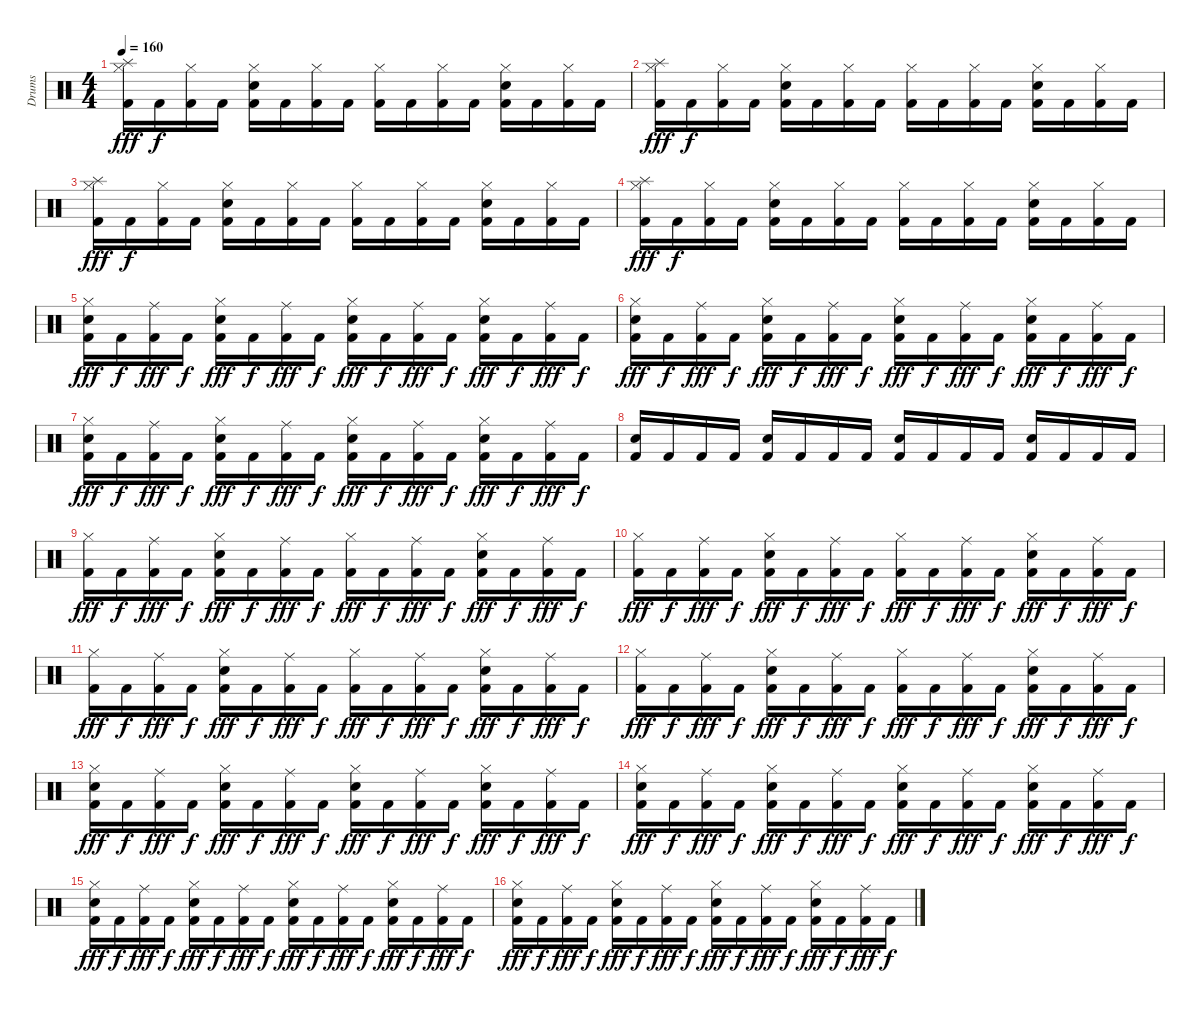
\track ("Drums" "Drums") {instrument percussion}
\staff {score}
\articulation defaults
\ts (4 4)
\tempo 160
\clef neutral
\ks c
("Splash (hit)" "Hi-Hat (closed)" "Kick (hit) 2").16{dy fff} "Kick (hit) 2".16{dy f} ("Hi-Hat (closed)" "Kick (hit) 2").16 "Kick (hit) 2".16 ("Hi-Hat (closed)" "Snare (hit) 2" "Kick (hit) 2").16 "Kick (hit) 2".16 ("Hi-Hat (closed)" "Kick (hit) 2").16 "Kick (hit) 2".16 ("Hi-Hat (closed)" "Kick (hit) 2").16 "Kick (hit) 2".16 ("Hi-Hat (closed)" "Kick (hit) 2").16 "Kick (hit) 2".16 ("Hi-Hat (closed)" "Snare (hit) 2" "Kick (hit) 2").16 "Kick (hit) 2".16 ("Hi-Hat (closed)" "Kick (hit) 2").16 "Kick (hit) 2".16 |
("Splash (hit)" "Hi-Hat (closed)" "Kick (hit) 2").16{dy fff} "Kick (hit) 2".16{dy f} ("Hi-Hat (closed)" "Kick (hit) 2").16 "Kick (hit) 2".16 ("Hi-Hat (closed)" "Snare (hit) 2" "Kick (hit) 2").16 "Kick (hit) 2".16 ("Hi-Hat (closed)" "Kick (hit) 2").16 "Kick (hit) 2".16 ("Hi-Hat (closed)" "Kick (hit) 2").16 "Kick (hit) 2".16 ("Hi-Hat (closed)" "Kick (hit) 2").16 "Kick (hit) 2".16 ("Hi-Hat (closed)" "Snare (hit) 2" "Kick (hit) 2").16 "Kick (hit) 2".16 ("Hi-Hat (closed)" "Kick (hit) 2").16 "Kick (hit) 2".16 |
("Splash (hit)" "Hi-Hat (closed)" "Kick (hit) 2").16{dy fff} "Kick (hit) 2".16{dy f} ("Hi-Hat (closed)" "Kick (hit) 2").16 "Kick (hit) 2".16 ("Hi-Hat (closed)" "Snare (hit) 2" "Kick (hit) 2").16 "Kick (hit) 2".16 ("Hi-Hat (closed)" "Kick (hit) 2").16 "Kick (hit) 2".16 ("Hi-Hat (closed)" "Kick (hit) 2").16 "Kick (hit) 2".16 ("Hi-Hat (closed)" "Kick (hit) 2").16 "Kick (hit) 2".16 ("Hi-Hat (closed)" "Snare (hit) 2" "Kick (hit) 2").16 "Kick (hit) 2".16 ("Hi-Hat (closed)" "Kick (hit) 2").16 "Kick (hit) 2".16 |
("Splash (hit)" "Hi-Hat (closed)" "Kick (hit) 2").16{dy fff} "Kick (hit) 2".16{dy f} ("Hi-Hat (closed)" "Kick (hit) 2").16 "Kick (hit) 2".16 ("Hi-Hat (closed)" "Snare (hit) 2" "Kick (hit) 2").16 "Kick (hit) 2".16 ("Hi-Hat (closed)" "Kick (hit) 2").16 "Kick (hit) 2".16 ("Hi-Hat (closed)" "Kick (hit) 2").16 "Kick (hit) 2".16 ("Hi-Hat (closed)" "Kick (hit) 2").16 "Kick (hit) 2".16 ("Hi-Hat (closed)" "Snare (hit) 2" "Kick (hit) 2").16 "Kick (hit) 2".16 ("Hi-Hat (closed)" "Kick (hit) 2").16 "Kick (hit) 2".16 |
("Hi-Hat (closed)" "Snare (hit) 2" "Kick (hit) 2").16{dy fff} "Kick (hit) 2".16{dy f} ("Ride (middle)" "Kick (hit) 2").16{dy fff} "Kick (hit) 2".16{dy f} ("Hi-Hat (closed)" "Snare (hit) 2" "Kick (hit) 2").16{dy fff} "Kick (hit) 2".16{dy f} ("Ride (middle)" "Kick (hit) 2").16{dy fff} "Kick (hit) 2".16{dy f} ("Hi-Hat (closed)" "Snare (hit) 2" "Kick (hit) 2").16{dy fff} "Kick (hit) 2".16{dy f} ("Ride (middle)" "Kick (hit) 2").16{dy fff} "Kick (hit) 2".16{dy f} ("Hi-Hat (closed)" "Snare (hit) 2" "Kick (hit) 2").16{dy fff} "Kick (hit) 2".16{dy f} ("Ride (middle)" "Kick (hit) 2").16{dy fff} "Kick (hit) 2".16{dy f} |
("Hi-Hat (closed)" "Snare (hit) 2" "Kick (hit) 2").16{dy fff} "Kick (hit) 2".16{dy f} ("Ride (middle)" "Kick (hit) 2").16{dy fff} "Kick (hit) 2".16{dy f} ("Hi-Hat (closed)" "Snare (hit) 2" "Kick (hit) 2").16{dy fff} "Kick (hit) 2".16{dy f} ("Ride (middle)" "Kick (hit) 2").16{dy fff} "Kick (hit) 2".16{dy f} ("Hi-Hat (closed)" "Snare (hit) 2" "Kick (hit) 2").16{dy fff} "Kick (hit) 2".16{dy f} ("Ride (middle)" "Kick (hit) 2").16{dy fff} "Kick (hit) 2".16{dy f} ("Hi-Hat (closed)" "Snare (hit) 2" "Kick (hit) 2").16{dy fff} "Kick (hit) 2".16{dy f} ("Ride (middle)" "Kick (hit) 2").16{dy fff} "Kick (hit) 2".16{dy f} |
("Hi-Hat (closed)" "Snare (hit) 2" "Kick (hit) 2").16{dy fff} "Kick (hit) 2".16{dy f} ("Ride (middle)" "Kick (hit) 2").16{dy fff} "Kick (hit) 2".16{dy f} ("Hi-Hat (closed)" "Snare (hit) 2" "Kick (hit) 2").16{dy fff} "Kick (hit) 2".16{dy f} ("Ride (middle)" "Kick (hit) 2").16{dy fff} "Kick (hit) 2".16{dy f} ("Hi-Hat (closed)" "Snare (hit) 2" "Kick (hit) 2").16{dy fff} "Kick (hit) 2".16{dy f} ("Ride (middle)" "Kick (hit) 2").16{dy fff} "Kick (hit) 2".16{dy f} ("Hi-Hat (closed)" "Snare (hit) 2" "Kick (hit) 2").16{dy fff} "Kick (hit) 2".16{dy f} ("Ride (middle)" "Kick (hit) 2").16{dy fff} "Kick (hit) 2".16{dy f} |
("Snare (hit) 2" "Kick (hit) 2").16 "Kick (hit) 2".16 "Kick (hit) 2".16 "Kick (hit) 2".16 ("Snare (hit) 2" "Kick (hit) 2").16 "Kick (hit) 2".16 "Kick (hit) 2".16 "Kick (hit) 2".16 ("Snare (hit) 2" "Kick (hit) 2").16 "Kick (hit) 2".16 "Kick (hit) 2".16 "Kick (hit) 2".16 ("Snare (hit) 2" "Kick (hit) 2").16 "Kick (hit) 2".16 "Kick (hit) 2".16 "Kick (hit) 2".16 |
("Hi-Hat (closed)" "Kick (hit) 2").16{dy fff} "Kick (hit) 2".16{dy f} ("Ride (middle)" "Kick (hit) 2").16{dy fff} "Kick (hit) 2".16{dy f} ("Hi-Hat (closed)" "Snare (hit) 2" "Kick (hit) 2").16{dy fff} "Kick (hit) 2".16{dy f} ("Ride (middle)" "Kick (hit) 2").16{dy fff} "Kick (hit) 2".16{dy f} ("Hi-Hat (closed)" "Kick (hit) 2").16{dy fff} "Kick (hit) 2".16{dy f} ("Ride (middle)" "Kick (hit) 2").16{dy fff} "Kick (hit) 2".16{dy f} ("Hi-Hat (closed)" "Snare (hit) 2" "Kick (hit) 2").16{dy fff} "Kick (hit) 2".16{dy f} ("Ride (middle)" "Kick (hit) 2").16{dy fff} "Kick (hit) 2".16{dy f} |
("Hi-Hat (closed)" "Kick (hit) 2").16{dy fff} "Kick (hit) 2".16{dy f} ("Ride (middle)" "Kick (hit) 2").16{dy fff} "Kick (hit) 2".16{dy f} ("Hi-Hat (closed)" "Snare (hit) 2" "Kick (hit) 2").16{dy fff} "Kick (hit) 2".16{dy f} ("Ride (middle)" "Kick (hit) 2").16{dy fff} "Kick (hit) 2".16{dy f} ("Hi-Hat (closed)" "Kick (hit) 2").16{dy fff} "Kick (hit) 2".16{dy f} ("Ride (middle)" "Kick (hit) 2").16{dy fff} "Kick (hit) 2".16{dy f} ("Hi-Hat (closed)" "Snare (hit) 2" "Kick (hit) 2").16{dy fff} "Kick (hit) 2".16{dy f} ("Ride (middle)" "Kick (hit) 2").16{dy fff} "Kick (hit) 2".16{dy f} |
("Hi-Hat (closed)" "Kick (hit) 2").16{dy fff} "Kick (hit) 2".16{dy f} ("Ride (middle)" "Kick (hit) 2").16{dy fff} "Kick (hit) 2".16{dy f} ("Hi-Hat (closed)" "Snare (hit) 2" "Kick (hit) 2").16{dy fff} "Kick (hit) 2".16{dy f} ("Ride (middle)" "Kick (hit) 2").16{dy fff} "Kick (hit) 2".16{dy f} ("Hi-Hat (closed)" "Kick (hit) 2").16{dy fff} "Kick (hit) 2".16{dy f} ("Ride (middle)" "Kick (hit) 2").16{dy fff} "Kick (hit) 2".16{dy f} ("Hi-Hat (closed)" "Snare (hit) 2" "Kick (hit) 2").16{dy fff} "Kick (hit) 2".16{dy f} ("Ride (middle)" "Kick (hit) 2").16{dy fff} "Kick (hit) 2".16{dy f} |
("Hi-Hat (closed)" "Kick (hit) 2").16{dy fff} "Kick (hit) 2".16{dy f} ("Ride (middle)" "Kick (hit) 2").16{dy fff} "Kick (hit) 2".16{dy f} ("Hi-Hat (closed)" "Snare (hit) 2" "Kick (hit) 2").16{dy fff} "Kick (hit) 2".16{dy f} ("Ride (middle)" "Kick (hit) 2").16{dy fff} "Kick (hit) 2".16{dy f} ("Hi-Hat (closed)" "Kick (hit) 2").16{dy fff} "Kick (hit) 2".16{dy f} ("Ride (middle)" "Kick (hit) 2").16{dy fff} "Kick (hit) 2".16{dy f} ("Hi-Hat (closed)" "Snare (hit) 2" "Kick (hit) 2").16{dy fff} "Kick (hit) 2".16{dy f} ("Ride (middle)" "Kick (hit) 2").16{dy fff} "Kick (hit) 2".16{dy f} |
("Hi-Hat (closed)" "Snare (hit) 2" "Kick (hit) 2").16{dy fff} "Kick (hit) 2".16{dy f} ("Ride (middle)" "Kick (hit) 2").16{dy fff} "Kick (hit) 2".16{dy f} ("Hi-Hat (closed)" "Snare (hit) 2" "Kick (hit) 2").16{dy fff} "Kick (hit) 2".16{dy f} ("Ride (middle)" "Kick (hit) 2").16{dy fff} "Kick (hit) 2".16{dy f} ("Hi-Hat (closed)" "Snare (hit) 2" "Kick (hit) 2").16{dy fff} "Kick (hit) 2".16{dy f} ("Ride (middle)" "Kick (hit) 2").16{dy fff} "Kick (hit) 2".16{dy f} ("Hi-Hat (closed)" "Snare (hit) 2" "Kick (hit) 2").16{dy fff} "Kick (hit) 2".16{dy f} ("Ride (middle)" "Kick (hit) 2").16{dy fff} "Kick (hit) 2".16{dy f} |
("Hi-Hat (closed)" "Snare (hit) 2" "Kick (hit) 2").16{dy fff} "Kick (hit) 2".16{dy f} ("Ride (middle)" "Kick (hit) 2").16{dy fff} "Kick (hit) 2".16{dy f} ("Hi-Hat (closed)" "Snare (hit) 2" "Kick (hit) 2").16{dy fff} "Kick (hit) 2".16{dy f} ("Ride (middle)" "Kick (hit) 2").16{dy fff} "Kick (hit) 2".16{dy f} ("Hi-Hat (closed)" "Snare (hit) 2" "Kick (hit) 2").16{dy fff} "Kick (hit) 2".16{dy f} ("Ride (middle)" "Kick (hit) 2").16{dy fff} "Kick (hit) 2".16{dy f} ("Hi-Hat (closed)" "Snare (hit) 2" "Kick (hit) 2").16{dy fff} "Kick (hit) 2".16{dy f} ("Ride (middle)" "Kick (hit) 2").16{dy fff} "Kick (hit) 2".16{dy f} |
("Hi-Hat (closed)" "Snare (hit) 2" "Kick (hit) 2").16{dy fff} "Kick (hit) 2".16{dy f} ("Ride (middle)" "Kick (hit) 2").16{dy fff} "Kick (hit) 2".16{dy f} ("Hi-Hat (closed)" "Snare (hit) 2" "Kick (hit) 2").16{dy fff} "Kick (hit) 2".16{dy f} ("Ride (middle)" "Kick (hit) 2").16{dy fff} "Kick (hit) 2".16{dy f} ("Hi-Hat (closed)" "Snare (hit) 2" "Kick (hit) 2").16{dy fff} "Kick (hit) 2".16{dy f} ("Ride (middle)" "Kick (hit) 2").16{dy fff} "Kick (hit) 2".16{dy f} ("Hi-Hat (closed)" "Snare (hit) 2" "Kick (hit) 2").16{dy fff} "Kick (hit) 2".16{dy f} ("Ride (middle)" "Kick (hit) 2").16{dy fff} "Kick (hit) 2".16{dy f} |
("Hi-Hat (closed)" "Snare (hit) 2" "Kick (hit) 2").16{dy fff} "Kick (hit) 2".16{dy f} ("Ride (middle)" "Kick (hit) 2").16{dy fff} "Kick (hit) 2".16{dy f} ("Hi-Hat (closed)" "Snare (hit) 2" "Kick (hit) 2").16{dy fff} "Kick (hit) 2".16{dy f} ("Ride (middle)" "Kick (hit) 2").16{dy fff} "Kick (hit) 2".16{dy f} ("Hi-Hat (closed)" "Snare (hit) 2" "Kick (hit) 2").16{dy fff} "Kick (hit) 2".16{dy f} ("Ride (middle)" "Kick (hit) 2").16{dy fff} "Kick (hit) 2".16{dy f} ("Hi-Hat (closed)" "Snare (hit) 2" "Kick (hit) 2").16{dy fff} "Kick (hit) 2".16{dy f} ("Ride (middle)" "Kick (hit) 2").16{dy fff} "Kick (hit) 2".16{dy f}
